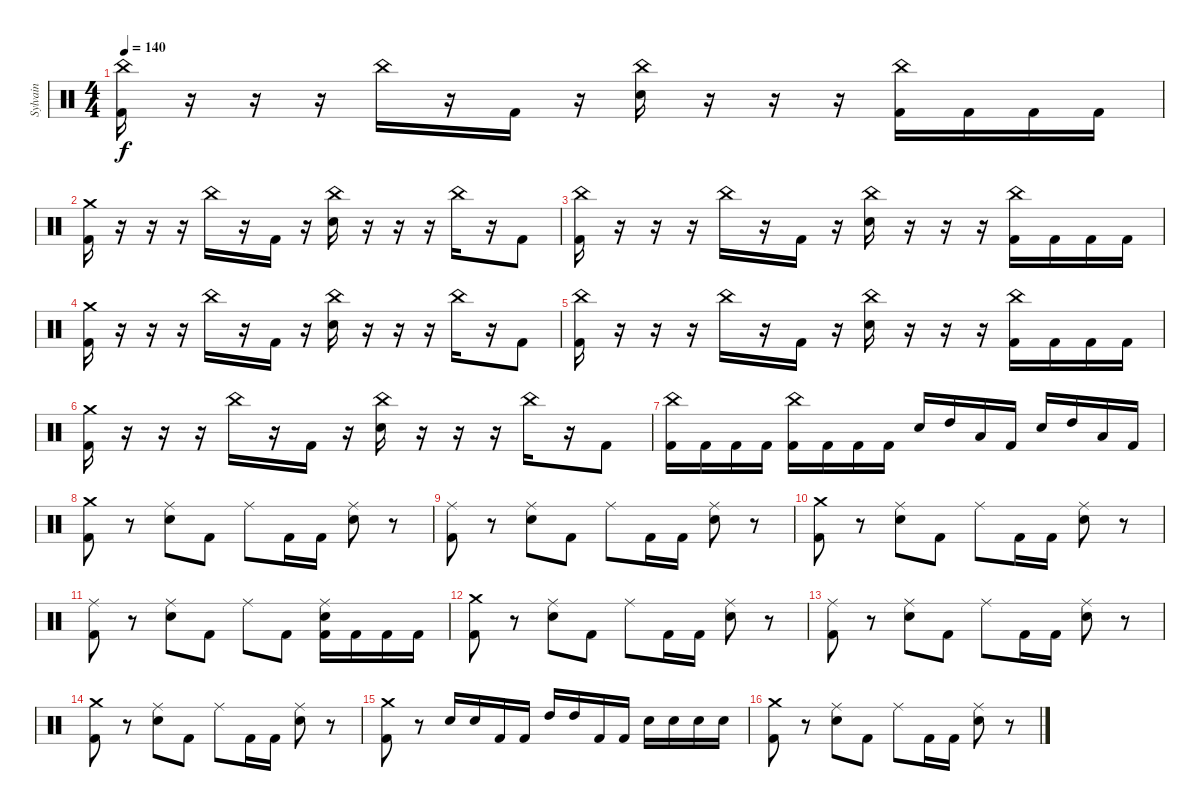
\track ("Sylvain" "Sylvain") {instrument percussion}
\staff {score}
\articulation defaults
\ts (4 4)
\tempo 140
\clef neutral
\ks c
("China (hit)" "Kick (hit) 2").16{dy f} r.16 r.16 r.16 "China (hit)".16 r.16 "Kick (hit) 2".16 r.16 ("China (hit)" "Snare (hit) 2").16 r.16 r.16 r.16 ("China (hit)" "Kick (hit) 2").16 "Kick (hit) 2".16 "Kick (hit) 2".16 "Kick (hit) 2".16 |
("Crash medium (hit)" "Kick (hit) 2").16 r.16 r.16 r.16 "China (hit)".16 r.16 "Kick (hit) 2".16 r.16 ("China (hit)" "Snare (hit) 2").16 r.16 r.16 r.16 "China (hit)".16 r.16 "Kick (hit) 2".8 |
("China (hit)" "Kick (hit) 2").16 r.16 r.16 r.16 "China (hit)".16 r.16 "Kick (hit) 2".16 r.16 ("China (hit)" "Snare (hit) 2").16 r.16 r.16 r.16 ("China (hit)" "Kick (hit) 2").16 "Kick (hit) 2".16 "Kick (hit) 2".16 "Kick (hit) 2".16 |
("Crash medium (hit)" "Kick (hit) 2").16 r.16 r.16 r.16 "China (hit)".16 r.16 "Kick (hit) 2".16 r.16 ("China (hit)" "Snare (hit) 2").16 r.16 r.16 r.16 "China (hit)".16 r.16 "Kick (hit) 2".8 |
("China (hit)" "Kick (hit) 2").16 r.16 r.16 r.16 "China (hit)".16 r.16 "Kick (hit) 2".16 r.16 ("China (hit)" "Snare (hit) 2").16 r.16 r.16 r.16 ("China (hit)" "Kick (hit) 2").16 "Kick (hit) 2".16 "Kick (hit) 2".16 "Kick (hit) 2".16 |
("Crash medium (hit)" "Kick (hit) 2").16 r.16 r.16 r.16 "China (hit)".16 r.16 "Kick (hit) 2".16 r.16 ("China (hit)" "Snare (hit) 2").16 r.16 r.16 r.16 "China (hit)".16 r.16 "Kick (hit) 2".8 |
("China (hit)" "Kick (hit) 2").16 "Kick (hit) 2".16 "Kick (hit) 2".16 "Kick (hit) 2".16 ("China (hit)" "Kick (hit) 2").16 "Kick (hit) 2".16 "Kick (hit) 2".16 "Kick (hit) 2".16 "Snare (hit) 2".16 "High Tom (hit)".16 "Low Tom (hit)".16 "Kick (hit) 2".16 "Snare (hit) 2".16 "High Tom (hit)".16 "Low Tom (hit)".16 "Kick (hit) 2".16 |
("Crash medium (hit)" "Kick (hit) 2").8 r.8 ("Ride (middle)" "Snare (hit) 2").8 "Kick (hit) 2".8 "Ride (middle)".8 "Kick (hit) 2".16 "Kick (hit) 2".16 ("Ride (middle)" "Snare (hit) 2").8 r.8 |
("Ride (middle)" "Kick (hit) 2").8 r.8 ("Ride (middle)" "Snare (hit) 2").8 "Kick (hit) 2".8 "Ride (middle)".8 "Kick (hit) 2".16 "Kick (hit) 2".16 ("Ride (middle)" "Snare (hit) 2").8 r.8 |
("Crash medium (hit)" "Kick (hit) 2").8 r.8 ("Ride (middle)" "Snare (hit) 2").8 "Kick (hit) 2".8 "Ride (middle)".8 "Kick (hit) 2".16 "Kick (hit) 2".16 ("Ride (middle)" "Snare (hit) 2").8 r.8 |
("Ride (middle)" "Kick (hit) 2").8 r.8 ("Ride (middle)" "Snare (hit) 2").8 "Kick (hit) 2".8 "Ride (middle)".8 "Kick (hit) 2".8 ("Ride (middle)" "Snare (hit) 2" "Kick (hit) 2").16 "Kick (hit) 2".16 "Kick (hit) 2".16 "Kick (hit) 2".16 |
("Crash medium (hit)" "Kick (hit) 2").8 r.8 ("Ride (middle)" "Snare (hit) 2").8 "Kick (hit) 2".8 "Ride (middle)".8 "Kick (hit) 2".16 "Kick (hit) 2".16 ("Ride (middle)" "Snare (hit) 2").8 r.8 |
("Ride (middle)" "Kick (hit) 2").8 r.8 ("Ride (middle)" "Snare (hit) 2").8 "Kick (hit) 2".8 "Ride (middle)".8 "Kick (hit) 2".16 "Kick (hit) 2".16 ("Ride (middle)" "Snare (hit) 2").8 r.8 |
("Crash medium (hit)" "Kick (hit) 2").8 r.8 ("Ride (middle)" "Snare (hit) 2").8 "Kick (hit) 2".8 "Ride (middle)".8 "Kick (hit) 2".16 "Kick (hit) 2".16 ("Ride (middle)" "Snare (hit) 2").8 r.8 |
("Crash medium (hit)" "Kick (hit) 2").8 r.8 "Snare (hit) 2".16 "Snare (hit) 2".16 "Kick (hit) 2".16 "Kick (hit) 2".16 "High Tom (hit)".16 "High Tom (hit)".16 "Kick (hit) 2".16 "Kick (hit) 2".16 "Snare (hit) 2".16 "Snare (hit) 2".16 "Snare (hit) 2".16 "Snare (hit) 2".16 |
("Crash medium (hit)" "Kick (hit) 2").8 r.8 ("Ride (middle)" "Snare (hit) 2").8 "Kick (hit) 2".8 "Ride (middle)".8 "Kick (hit) 2".16 "Kick (hit) 2".16 ("Ride (middle)" "Snare (hit) 2").8 r.8
